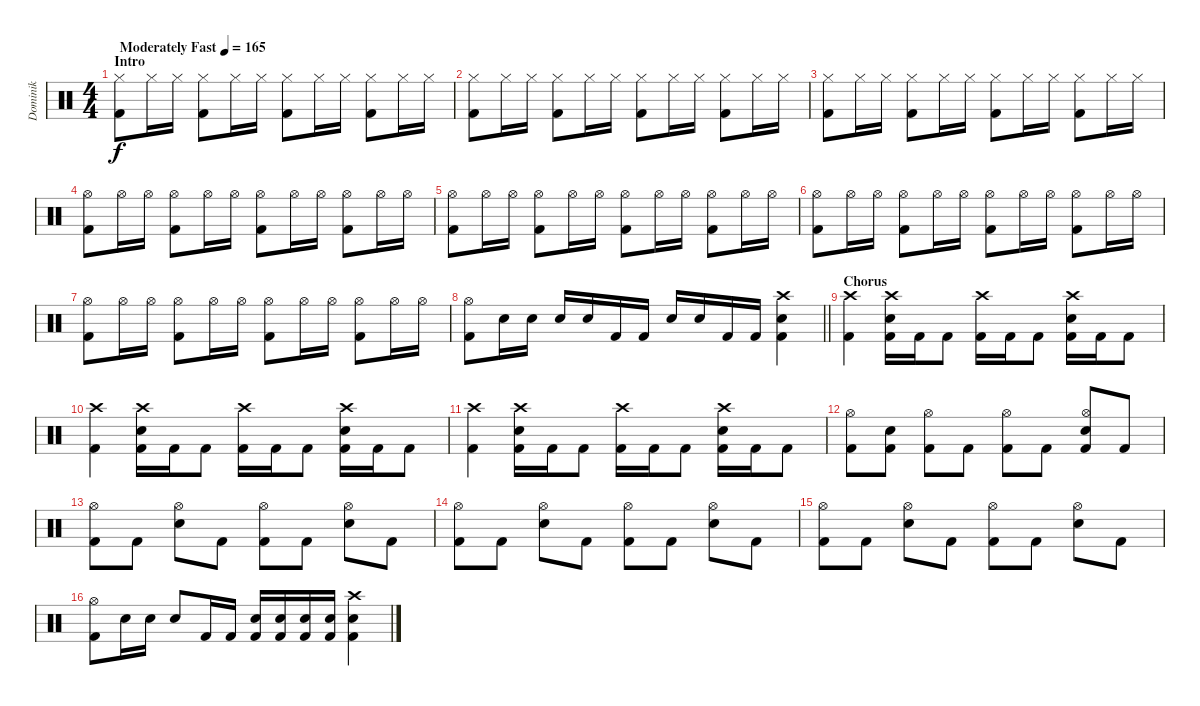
\track ("Dominik" "Dominik") {instrument percussion}
\staff {score}
\articulation defaults
\ts (4 4)
\section ("" "Intro")
\tempo (165 "Moderately Fast")
\clef neutral
\ks c
("Hi-Hat (closed)" "Kick (hit) 2").8{dy f} "Hi-Hat (closed)".16 "Hi-Hat (closed)".16 ("Hi-Hat (closed)" "Kick (hit) 2").8 "Hi-Hat (closed)".16 "Hi-Hat (closed)".16 ("Hi-Hat (closed)" "Kick (hit) 2").8 "Hi-Hat (closed)".16 "Hi-Hat (closed)".16 ("Hi-Hat (closed)" "Kick (hit) 2").8 "Hi-Hat (closed)".16 "Hi-Hat (closed)".16 |
("Hi-Hat (closed)" "Kick (hit) 2").8 "Hi-Hat (closed)".16 "Hi-Hat (closed)".16 ("Hi-Hat (closed)" "Kick (hit) 2").8 "Hi-Hat (closed)".16 "Hi-Hat (closed)".16 ("Hi-Hat (closed)" "Kick (hit) 2").8 "Hi-Hat (closed)".16 "Hi-Hat (closed)".16 ("Hi-Hat (closed)" "Kick (hit) 2").8 "Hi-Hat (closed)".16 "Hi-Hat (closed)".16 |
("Hi-Hat (closed)" "Kick (hit) 2").8 "Hi-Hat (closed)".16 "Hi-Hat (closed)".16 ("Hi-Hat (closed)" "Kick (hit) 2").8 "Hi-Hat (closed)".16 "Hi-Hat (closed)".16 ("Hi-Hat (closed)" "Kick (hit) 2").8 "Hi-Hat (closed)".16 "Hi-Hat (closed)".16 ("Hi-Hat (closed)" "Kick (hit) 2").8 "Hi-Hat (closed)".16 "Hi-Hat (closed)".16 |
("Hi-Hat (open)" "Kick (hit) 2").8 "Hi-Hat (open)".16 "Hi-Hat (open)".16 ("Hi-Hat (open)" "Kick (hit) 2").8 "Hi-Hat (open)".16 "Hi-Hat (open)".16 ("Hi-Hat (open)" "Kick (hit) 2").8 "Hi-Hat (open)".16 "Hi-Hat (open)".16 ("Hi-Hat (open)" "Kick (hit) 2").8 "Hi-Hat (open)".16 "Hi-Hat (open)".16 |
("Hi-Hat (open)" "Kick (hit) 2").8 "Hi-Hat (open)".16 "Hi-Hat (open)".16 ("Hi-Hat (open)" "Kick (hit) 2").8 "Hi-Hat (open)".16 "Hi-Hat (open)".16 ("Hi-Hat (open)" "Kick (hit) 2").8 "Hi-Hat (open)".16 "Hi-Hat (open)".16 ("Hi-Hat (open)" "Kick (hit) 2").8 "Hi-Hat (open)".16 "Hi-Hat (open)".16 |
("Hi-Hat (open)" "Kick (hit) 2").8 "Hi-Hat (open)".16 "Hi-Hat (open)".16 ("Hi-Hat (open)" "Kick (hit) 2").8 "Hi-Hat (open)".16 "Hi-Hat (open)".16 ("Hi-Hat (open)" "Kick (hit) 2").8 "Hi-Hat (open)".16 "Hi-Hat (open)".16 ("Hi-Hat (open)" "Kick (hit) 2").8 "Hi-Hat (open)".16 "Hi-Hat (open)".16 |
("Hi-Hat (open)" "Kick (hit) 2").8 "Hi-Hat (open)".16 "Hi-Hat (open)".16 ("Hi-Hat (open)" "Kick (hit) 2").8 "Hi-Hat (open)".16 "Hi-Hat (open)".16 ("Hi-Hat (open)" "Kick (hit) 2").8 "Hi-Hat (open)".16 "Hi-Hat (open)".16 ("Hi-Hat (open)" "Kick (hit) 2").8 "Hi-Hat (open)".16 "Hi-Hat (open)".16 |
\barLineRight lightlight
("Hi-Hat (open)" "Kick (hit) 2").8 "Electric Snare (hit)".16 "Electric Snare (hit)".16 "Electric Snare (hit)".16 "Electric Snare (hit)".16 "Kick (hit) 2".16 "Kick (hit) 2".16 "Electric Snare (hit)".16 "Electric Snare (hit)".16 "Kick (hit) 2".16 "Kick (hit) 2".16 ("Crash high (hit)" "Electric Snare (hit)" "Kick (hit) 2").4 |
\section ("" "Chorus")
("Crash high (hit)" "Kick (hit) 2").4 ("Crash high (hit)" "Electric Snare (hit)" "Kick (hit) 2").16 "Kick (hit) 2".16 "Kick (hit) 2".8 ("Crash high (hit)" "Kick (hit) 2").16 "Kick (hit) 2".16 "Kick (hit) 2".8 ("Crash high (hit)" "Electric Snare (hit)" "Kick (hit) 2").16 "Kick (hit) 2".16 "Kick (hit) 2".8 |
("Crash high (hit)" "Kick (hit) 2").4 ("Crash high (hit)" "Electric Snare (hit)" "Kick (hit) 2").16 "Kick (hit) 2".16 "Kick (hit) 2".8 ("Crash high (hit)" "Kick (hit) 2").16 "Kick (hit) 2".16 "Kick (hit) 2".8 ("Crash high (hit)" "Electric Snare (hit)" "Kick (hit) 2").16 "Kick (hit) 2".16 "Kick (hit) 2".8 |
("Crash high (hit)" "Kick (hit) 2").4 ("Crash high (hit)" "Electric Snare (hit)" "Kick (hit) 2").16 "Kick (hit) 2".16 "Kick (hit) 2".8 ("Crash high (hit)" "Kick (hit) 2").16 "Kick (hit) 2".16 "Kick (hit) 2".8 ("Crash high (hit)" "Electric Snare (hit)" "Kick (hit) 2").16 "Kick (hit) 2".16 "Kick (hit) 2".8 |
("Hi-Hat (open)" "Kick (hit) 2").8 ("Electric Snare (hit)" "Kick (hit) 2").8 ("Hi-Hat (open)" "Kick (hit) 2").8 "Kick (hit) 2".8 ("Hi-Hat (open)" "Kick (hit) 2").8 "Kick (hit) 2".8 ("Hi-Hat (open)" "Electric Snare (hit)" "Kick (hit) 2").8 "Kick (hit) 2".8 |
("Hi-Hat (open)" "Kick (hit) 2").8 "Kick (hit) 2".8 ("Hi-Hat (open)" "Electric Snare (hit)").8 "Kick (hit) 2".8 ("Hi-Hat (open)" "Kick (hit) 2").8 "Kick (hit) 2".8 ("Hi-Hat (open)" "Electric Snare (hit)").8 "Kick (hit) 2".8 |
("Hi-Hat (open)" "Kick (hit) 2").8 "Kick (hit) 2".8 ("Hi-Hat (open)" "Electric Snare (hit)").8 "Kick (hit) 2".8 ("Hi-Hat (open)" "Kick (hit) 2").8 "Kick (hit) 2".8 ("Hi-Hat (open)" "Electric Snare (hit)").8 "Kick (hit) 2".8 |
("Hi-Hat (open)" "Kick (hit) 2").8 "Kick (hit) 2".8 ("Hi-Hat (open)" "Electric Snare (hit)").8 "Kick (hit) 2".8 ("Hi-Hat (open)" "Kick (hit) 2").8 "Kick (hit) 2".8 ("Hi-Hat (open)" "Electric Snare (hit)").8 "Kick (hit) 2".8 |
("Hi-Hat (open)" "Kick (hit) 2").8 "Electric Snare (hit)".16 "Electric Snare (hit)".16 "Electric Snare (hit)".8 "Kick (hit) 2".16 "Kick (hit) 2".16 ("Electric Snare (hit)" "Kick (hit) 2").16 ("Electric Snare (hit)" "Kick (hit) 2").16 ("Electric Snare (hit)" "Kick (hit) 2").16 ("Electric Snare (hit)" "Kick (hit) 2").16 ("Crash high (hit)" "Electric Snare (hit)" "Kick (hit) 2").4
